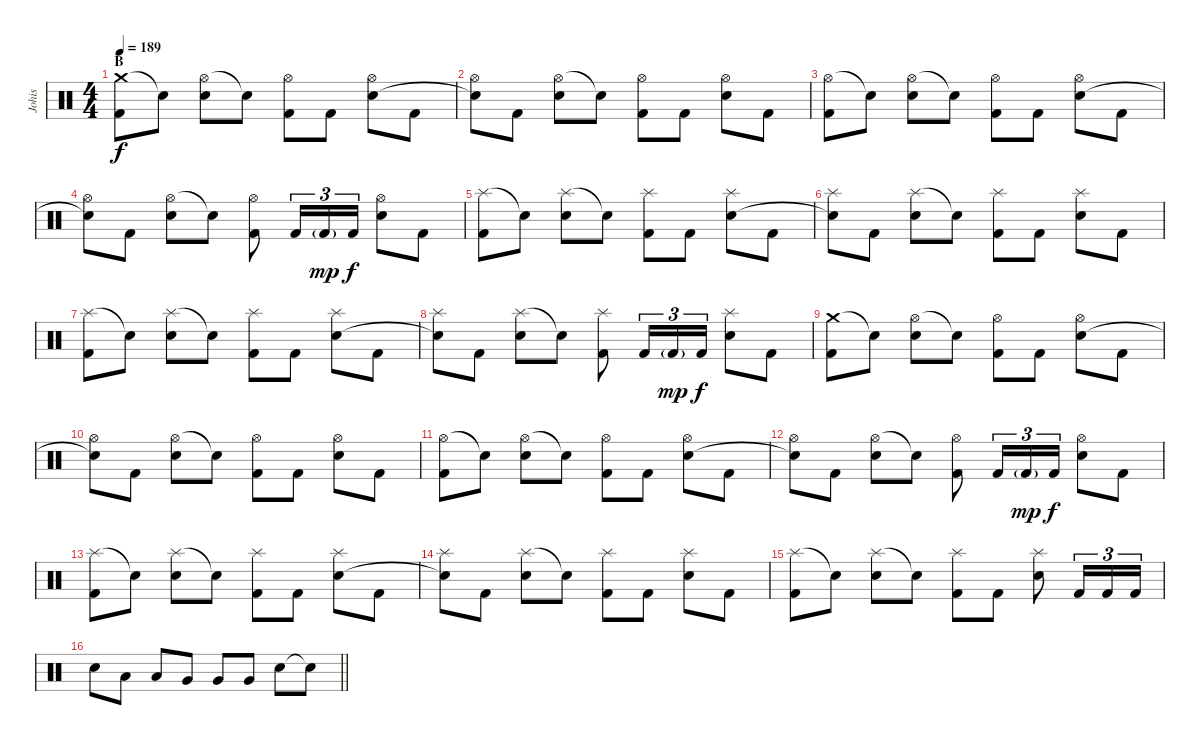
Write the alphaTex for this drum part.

\track ("Johis" "Johis") {instrument percussion}
\staff {score}
\articulation defaults
\ts (4 4)
\section ("" "B")
\tempo 189
\clef neutral
\ks c
("Crash medium (hit)" "Kick (hit) 2").8{dy f} "Snare (hit)"{t}.8 ("Hi-Hat (open)" "Electric Snare (hit)").8 "Snare (hit)"{t}.8 ("Hi-Hat (open)" "Kick (hit) 2").8 "Kick (hit) 2".8 ("Hi-Hat (open)" "Electric Snare (hit)").8 "Kick (hit) 2".8 |
("Hi-Hat (open)" "Snare (hit)"{t}).8 "Kick (hit) 2".8 ("Hi-Hat (open)" "Electric Snare (hit)").8 "Snare (hit)"{t}.8 ("Hi-Hat (open)" "Kick (hit) 2").8 "Kick (hit) 2".8 ("Hi-Hat (open)" "Electric Snare (hit)").8 "Kick (hit) 2".8 |
("Hi-Hat (open)" "Kick (hit) 2").8 "Snare (hit)"{t}.8 ("Hi-Hat (open)" "Electric Snare (hit)").8 "Snare (hit)"{t}.8 ("Hi-Hat (open)" "Kick (hit) 2").8 "Kick (hit) 2".8 ("Hi-Hat (open)" "Electric Snare (hit)").8 "Kick (hit) 2".8 |
("Hi-Hat (open)" "Snare (hit)"{t}).8 "Kick (hit) 2".8 ("Hi-Hat (open)" "Electric Snare (hit)").8 "Snare (hit)"{t}.8 ("Hi-Hat (open)" "Kick (hit) 2").8 "Kick (hit) 2".16{tu (3 2)} "Kick (hit) 2"{g}.16{tu (3 2) dy mp} "Kick (hit) 2".16{tu (3 2) dy f} ("Hi-Hat (open)" "Electric Snare (hit)").8 "Kick (hit) 2".8 |
("Splash (hit)" "Kick (hit) 2").8 "Snare (hit)"{t}.8 ("Splash (hit)" "Electric Snare (hit)").8 "Snare (hit)"{t}.8 ("Splash (hit)" "Kick (hit) 2").8 "Kick (hit) 2".8 ("Splash (hit)" "Electric Snare (hit)").8 "Kick (hit) 2".8 |
("Splash (hit)" "Snare (hit)"{t}).8 "Kick (hit) 2".8 ("Splash (hit)" "Electric Snare (hit)").8 "Snare (hit)"{t}.8 ("Splash (hit)" "Kick (hit) 2").8 "Kick (hit) 2".8 ("Splash (hit)" "Electric Snare (hit)").8 "Kick (hit) 2".8 |
("Splash (hit)" "Kick (hit) 2").8 "Snare (hit)"{t}.8 ("Splash (hit)" "Electric Snare (hit)").8 "Snare (hit)"{t}.8 ("Splash (hit)" "Kick (hit) 2").8 "Kick (hit) 2".8 ("Splash (hit)" "Electric Snare (hit)").8 "Kick (hit) 2".8 |
("Splash (hit)" "Snare (hit)"{t}).8 "Kick (hit) 2".8 ("Splash (hit)" "Electric Snare (hit)").8 "Snare (hit)"{t}.8 ("Splash (hit)" "Kick (hit) 2").8 "Kick (hit) 2".16{tu (3 2)} "Kick (hit) 2"{g}.16{tu (3 2) dy mp} "Kick (hit) 2".16{tu (3 2) dy f} ("Splash (hit)" "Electric Snare (hit)").8 "Kick (hit) 2".8 |
("Crash medium (hit)" "Kick (hit) 2").8 "Snare (hit)"{t}.8 ("Hi-Hat (open)" "Electric Snare (hit)").8 "Snare (hit)"{t}.8 ("Hi-Hat (open)" "Kick (hit) 2").8 "Kick (hit) 2".8 ("Hi-Hat (open)" "Electric Snare (hit)").8 "Kick (hit) 2".8 |
("Hi-Hat (open)" "Snare (hit)"{t}).8 "Kick (hit) 2".8 ("Hi-Hat (open)" "Electric Snare (hit)").8 "Snare (hit)"{t}.8 ("Hi-Hat (open)" "Kick (hit) 2").8 "Kick (hit) 2".8 ("Hi-Hat (open)" "Electric Snare (hit)").8 "Kick (hit) 2".8 |
("Hi-Hat (open)" "Kick (hit) 2").8 "Snare (hit)"{t}.8 ("Hi-Hat (open)" "Electric Snare (hit)").8 "Snare (hit)"{t}.8 ("Hi-Hat (open)" "Kick (hit) 2").8 "Kick (hit) 2".8 ("Hi-Hat (open)" "Electric Snare (hit)").8 "Kick (hit) 2".8 |
("Hi-Hat (open)" "Snare (hit)"{t}).8 "Kick (hit) 2".8 ("Hi-Hat (open)" "Electric Snare (hit)").8 "Snare (hit)"{t}.8 ("Hi-Hat (open)" "Kick (hit) 2").8 "Kick (hit) 2".16{tu (3 2)} "Kick (hit) 2"{g}.16{tu (3 2) dy mp} "Kick (hit) 2".16{tu (3 2) dy f} ("Hi-Hat (open)" "Electric Snare (hit)").8 "Kick (hit) 2".8 |
("Splash (hit)" "Kick (hit) 2").8 "Snare (hit)"{t}.8 ("Splash (hit)" "Electric Snare (hit)").8 "Snare (hit)"{t}.8 ("Splash (hit)" "Kick (hit) 2").8 "Kick (hit) 2".8 ("Splash (hit)" "Electric Snare (hit)").8 "Kick (hit) 2".8 |
("Splash (hit)" "Snare (hit)"{t}).8 "Kick (hit) 2".8 ("Splash (hit)" "Electric Snare (hit)").8 "Snare (hit)"{t}.8 ("Splash (hit)" "Kick (hit) 2").8 "Kick (hit) 2".8 ("Splash (hit)" "Electric Snare (hit)").8 "Kick (hit) 2".8 |
("Splash (hit)" "Kick (hit) 2").8 "Snare (hit)"{t}.8 ("Splash (hit)" "Electric Snare (hit)").8 "Snare (hit)"{t}.8 ("Splash (hit)" "Kick (hit) 2").8 "Kick (hit) 2".8 ("Splash (hit)" "Electric Snare (hit)").8 "Kick (hit) 2".16{tu (3 2)} "Kick (hit) 2".16{tu (3 2)} "Kick (hit) 2".16{tu (3 2)} |
\barLineRight lightlight "Electric Snare (hit)".8 "Low Tom (hit)".8 "Low Tom (hit)".8 "Very Low Tom (hit)".8 "Very Low Tom (hit)".8 "Very Low Tom (hit)".8 "Electric Snare (hit)".8 "Snare (hit)"{t}.8
